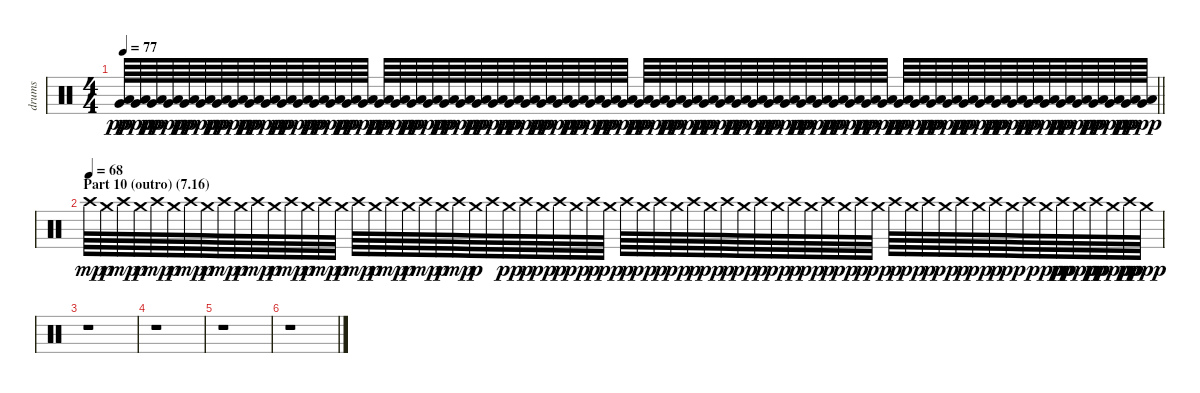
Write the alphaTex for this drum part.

\track ("drums" "drums") {instrument percussion}
\staff {score}
\articulation defaults
\ts (4 4)
\tempo 77
\clef neutral
\barLineRight lightlight
\ks c
("Low Floor Tom (hit)" "Very Low Tom (hit)").64{dy pp} ("Low Floor Tom (hit)" "Very Low Tom (hit)").64{dy ppp} ("Low Floor Tom (hit)" "Very Low Tom (hit)").64{dy pp} ("Low Floor Tom (hit)" "Very Low Tom (hit)").64{dy ppp} ("Low Floor Tom (hit)" "Very Low Tom (hit)").64{dy pp} ("Low Floor Tom (hit)" "Very Low Tom (hit)").64{dy ppp} ("Low Floor Tom (hit)" "Very Low Tom (hit)").64{dy pp} ("Low Floor Tom (hit)" "Very Low Tom (hit)").64{dy ppp} ("Low Floor Tom (hit)" "Very Low Tom (hit)").64{dy pp} ("Low Floor Tom (hit)" "Very Low Tom (hit)").64{dy ppp} ("Low Floor Tom (hit)" "Very Low Tom (hit)").64{dy pp} ("Low Floor Tom (hit)" "Very Low Tom (hit)").64{dy ppp} ("Low Floor Tom (hit)" "Very Low Tom (hit)").64{dy pp} ("Low Floor Tom (hit)" "Very Low Tom (hit)").64{dy ppp} ("Low Floor Tom (hit)" "Very Low Tom (hit)").64{dy pp} ("Low Floor Tom (hit)" "Very Low Tom (hit)").64{dy ppp} ("Low Floor Tom (hit)" "Very Low Tom (hit)").64{dy pp} ("Low Floor Tom (hit)" "Very Low Tom (hit)").64{dy ppp} ("Low Floor Tom (hit)" "Very Low Tom (hit)").64{dy pp} ("Low Floor Tom (hit)" "Very Low Tom (hit)").64{dy ppp} ("Low Floor Tom (hit)" "Very Low Tom (hit)").64{dy pp} ("Low Floor Tom (hit)" "Very Low Tom (hit)").64{dy ppp} ("Low Floor Tom (hit)" "Very Low Tom (hit)").64{dy pp} ("Low Floor Tom (hit)" "Very Low Tom (hit)").64{dy ppp} ("Low Floor Tom (hit)" "Very Low Tom (hit)").64{dy pp} ("Low Floor Tom (hit)" "Very Low Tom (hit)").64{dy ppp} ("Low Floor Tom (hit)" "Very Low Tom (hit)").64{dy pp} ("Low Floor Tom (hit)" "Very Low Tom (hit)").64{dy ppp} ("Low Floor Tom (hit)" "Very Low Tom (hit)").64{dy pp} ("Low Floor Tom (hit)" "Very Low Tom (hit)").64{dy ppp} ("Low Floor Tom (hit)" "Very Low Tom (hit)").64{dy pp} ("Low Floor Tom (hit)" "Very Low Tom (hit)").64{dy ppp} ("Low Floor Tom (hit)" "Very Low Tom (hit)").64{dy pp} ("Low Floor Tom (hit)" "Very Low Tom (hit)").64{dy ppp} ("Low Floor Tom (hit)" "Very Low Tom (hit)").64{dy pp} ("Low Floor Tom (hit)" "Very Low Tom (hit)").64{dy ppp} ("Low Floor Tom (hit)" "Very Low Tom (hit)").64{dy pp} ("Low Floor Tom (hit)" "Very Low Tom (hit)").64{dy ppp} ("Low Floor Tom (hit)" "Very Low Tom (hit)").64{dy pp} ("Low Floor Tom (hit)" "Very Low Tom (hit)").64{dy ppp} ("Low Floor Tom (hit)" "Very Low Tom (hit)").64{dy pp} ("Low Floor Tom (hit)" "Very Low Tom (hit)").64{dy ppp} ("Low Floor Tom (hit)" "Very Low Tom (hit)").64{dy pp} ("Low Floor Tom (hit)" "Very Low Tom (hit)").64{dy ppp} ("Low Floor Tom (hit)" "Very Low Tom (hit)").64{dy pp} ("Low Floor Tom (hit)" "Very Low Tom (hit)").64{dy ppp} ("Low Floor Tom (hit)" "Very Low Tom (hit)").64{dy pp} ("Low Floor Tom (hit)" "Very Low Tom (hit)").64{dy ppp} ("Low Floor Tom (hit)" "Very Low Tom (hit)").64{dy pp} ("Low Floor Tom (hit)" "Very Low Tom (hit)").64{dy ppp} ("Low Floor Tom (hit)" "Very Low Tom (hit)").64{dy pp} ("Low Floor Tom (hit)" "Very Low Tom (hit)").64{dy ppp} ("Low Floor Tom (hit)" "Very Low Tom (hit)").64{dy pp} ("Low Floor Tom (hit)" "Very Low Tom (hit)").64{dy ppp} ("Low Floor Tom (hit)" "Very Low Tom (hit)").64{dy pp} ("Low Floor Tom (hit)" "Very Low Tom (hit)").64{dy ppp} ("Low Floor Tom (hit)" "Very Low Tom (hit)").64{dy pp} ("Low Floor Tom (hit)" "Very Low Tom (hit)").64{dy ppp} ("Low Floor Tom (hit)" "Very Low Tom (hit)").64{dy pp} ("Low Floor Tom (hit)" "Very Low Tom (hit)").64{dy ppp} ("Low Floor Tom (hit)" "Very Low Tom (hit)").64{dy pp} ("Low Floor Tom (hit)" "Very Low Tom (hit)").64{dy ppp} ("Low Floor Tom (hit)" "Very Low Tom (hit)").64{dy pp} ("Low Floor Tom (hit)" "Very Low Tom (hit)").64{dy ppp} |
\section ("" "Part 10 (outro) (7.16)")
\tempo (68)
"Crash high (hit)".64{dy mp} "Crash medium (hit)".64{dy p} "Crash high (hit)".64{dy mp} "Crash medium (hit)".64{dy p} "Crash high (hit)".64{dy mp} "Crash medium (hit)".64{dy p} "Crash high (hit)".64{dy mp} "Crash medium (hit)".64{dy p} "Crash high (hit)".64{dy mp} "Crash medium (hit)".64{dy p} "Crash high (hit)".64{dy mp} "Crash medium (hit)".64{dy p} "Crash high (hit)".64{dy mp} "Crash medium (hit)".64{dy p} "Crash high (hit)".64{dy mp} "Crash medium (hit)".64{dy p} "Crash high (hit)".64{dy mp} "Crash medium (hit)".64{dy p} "Crash high (hit)".64{dy mp} "Crash medium (hit)".64{dy p} "Crash high (hit)".64{dy mp} "Crash medium (hit)".64{dy p} "Crash high (hit)".64{dy mp} "Crash medium (hit)".64{dy p} "Crash high (hit)".64 "Crash medium (hit)".64{dy pp} "Crash high (hit)".64{dy p} "Crash medium (hit)".64{dy pp} "Crash high (hit)".64{dy p} "Crash medium (hit)".64{dy pp} "Crash high (hit)".64{dy p} "Crash medium (hit)".64{dy pp} "Crash high (hit)".64{dy p} "Crash medium (hit)".64{dy pp} "Crash high (hit)".64{dy p} "Crash medium (hit)".64{dy pp} "Crash high (hit)".64{dy p} "Crash medium (hit)".64{dy pp} "Crash high (hit)".64{dy p} "Crash medium (hit)".64{dy pp} "Crash high (hit)".64{dy p} "Crash medium (hit)".64{dy pp} "Crash high (hit)".64{dy p} "Crash medium (hit)".64{dy pp} "Crash high (hit)".64{dy p} "Crash medium (hit)".64{dy pp} "Crash high (hit)".64{dy p} "Crash medium (hit)".64{dy pp} "Crash high (hit)".64{dy p} "Crash medium (hit)".64{dy pp} "Crash high (hit)".64{dy p} "Crash medium (hit)".64{dy pp} "Crash high (hit)".64{dy p} "Crash medium (hit)".64{dy pp} "Crash high (hit)".64{dy p} "Crash medium (hit)".64{dy pp} "Crash high (hit)".64 "Crash medium (hit)".64{dy ppp} "Crash high (hit)".64{dy pp} "Crash medium (hit)".64{dy ppp} "Crash high (hit)".64{dy pp} "Crash medium (hit)".64{dy ppp} "Crash high (hit)".64{dy pp} "Crash medium (hit)".64{dy ppp} |
r.1 |
r.1 |
r.1 |
r.1
